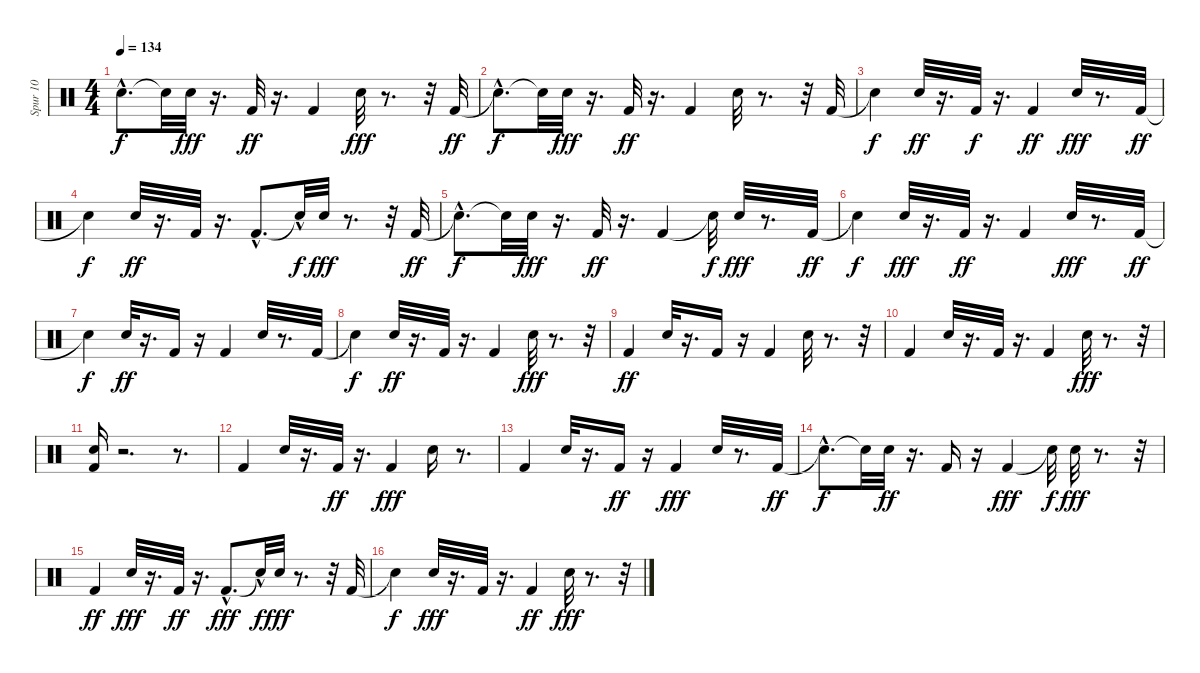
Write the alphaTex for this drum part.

\track ("Spur 10" "Spur 10") {instrument percussion}
\staff {score}
\articulation defaults
\ts (4 4)
\tempo 134
\clef neutral
\ks c "Snare (hit)"{hac t}.8{d dy f} "Snare (hit)"{t}.32 "Electric Snare (hit)".32{dy fff}
r.16{d} "Kick (hit) 2".32{dy ff} r.16{d} "Kick (hit) 2".4 "Electric Snare (hit)".32{dy fff} r.8{d} r.32 "Kick (hit) 2".32{dy ff} |
"Snare (hit)"{hac t}.8{d dy f} "Snare (hit)"{t}.32 "Electric Snare (hit)".32{dy fff} r.16{d} "Kick (hit) 2".32{dy ff} r.16{d} "Kick (hit) 2".4 "Electric Snare (hit)".32 r.8{d} r.32 "Kick (hit) 2".32 |
"Snare (hit)"{t}.4{dy f} "Electric Snare (hit)".32{dy ff} r.16{d} "Kick (hit) 2".32{dy f} r.16{d} "Kick (hit) 2".4{dy ff} "Electric Snare (hit)".32{dy fff} r.8{d} "Kick (hit) 2".32{dy ff} |
"Snare (hit)"{t}.4{dy f} "Electric Snare (hit)".32{dy ff} r.16{d} "Kick (hit) 2".32 r.16{d} "Kick (hit) 2"{hac}.8{d} "Snare (hit)"{hac t}.32{dy f} "Electric Snare (hit)".32{dy fff} r.8{d} r.32 "Kick (hit) 2".32{dy ff} |
"Snare (hit)"{hac t}.8{d dy f} "Snare (hit)"{t}.32 "Electric Snare (hit)".32{dy fff} r.16{d} "Kick (hit) 2".32{dy ff} r.16{d} "Kick (hit) 2".4 "Snare (hit)"{t}.32{dy f} "Electric Snare (hit)".32{dy fff} r.8{d} "Kick (hit) 2".32{dy ff} |
"Snare (hit)"{t}.4{dy f} "Electric Snare (hit)".32{dy fff} r.16{d} "Kick (hit) 2".32{dy ff} r.16{d} "Kick (hit) 2".4 "Electric Snare (hit)".32{dy fff} r.8{d} "Kick (hit) 2".32{dy ff} |
"Snare (hit)"{t}.4{dy f} "Electric Snare (hit)".32{dy ff} r.16{d} "Kick (hit) 2".16 r.16 "Kick (hit) 2".4 "Electric Snare (hit)".32 r.8{d} "Kick (hit) 2".32 |
"Snare (hit)"{t}.4{dy f} "Electric Snare (hit)".32{dy ff} r.16{d} "Kick (hit) 2".32 r.16{d} "Kick (hit) 2".4 "Electric Snare (hit)".32{dy fff} r.8{d} r.32 |
"Kick (hit) 2".4{dy ff} "Electric Snare (hit)".32 r.16{d} "Kick (hit) 2".16 r.16 "Kick (hit) 2".4 "Electric Snare (hit)".32 r.8{d} r.32 |
"Kick (hit) 2".4 "Electric Snare (hit)".32 r.16{d} "Kick (hit) 2".32 r.16{d} "Kick (hit) 2".4 "Electric Snare (hit)".32{dy fff} r.8{d} r.32 |
("Kick (hit) 2" "Electric Snare (hit)").16 r.2{d} r.8{d} |
"Kick (hit) 2".4 "Electric Snare (hit)".32 r.16{d} "Kick (hit) 2".32{dy ff} r.16{d} "Kick (hit) 2".4{dy fff} "Electric Snare (hit)".16 r.8{d} |
"Kick (hit) 2".4 "Electric Snare (hit)".32 r.16{d} "Kick (hit) 2".16{dy ff} r.16 "Kick (hit) 2".4{dy fff} "Electric Snare (hit)".32 r.8{d} "Kick (hit) 2".32{dy ff} |
"Snare (hit)"{hac t}.8{d dy f} "Snare (hit)"{t}.32 "Electric Snare (hit)".32{dy ff} r.16{d} "Kick (hit) 2".16 r.16 "Kick (hit) 2".4{dy fff} "Snare (hit)"{t}.32{dy f} "Electric Snare (hit)".32{dy fff} r.8{d} r.32 |
"Kick (hit) 2".4{dy ff} "Electric Snare (hit)".32{dy fff} r.16{d} "Kick (hit) 2".32{dy ff} r.16{d} "Kick (hit) 2"{hac}.8{d dy fff} "Snare (hit)"{hac t}.32{dy f} "Electric Snare (hit)".32{dy fff} r.8{d} r.32 "Kick (hit) 2".32 |
"Snare (hit)"{t}.4{dy f} "Electric Snare (hit)".32{dy fff} r.16{d} "Kick (hit) 2".32 r.16{d} "Kick (hit) 2".4{dy ff} "Electric Snare (hit)".32{dy fff} r.8{d} r.32
